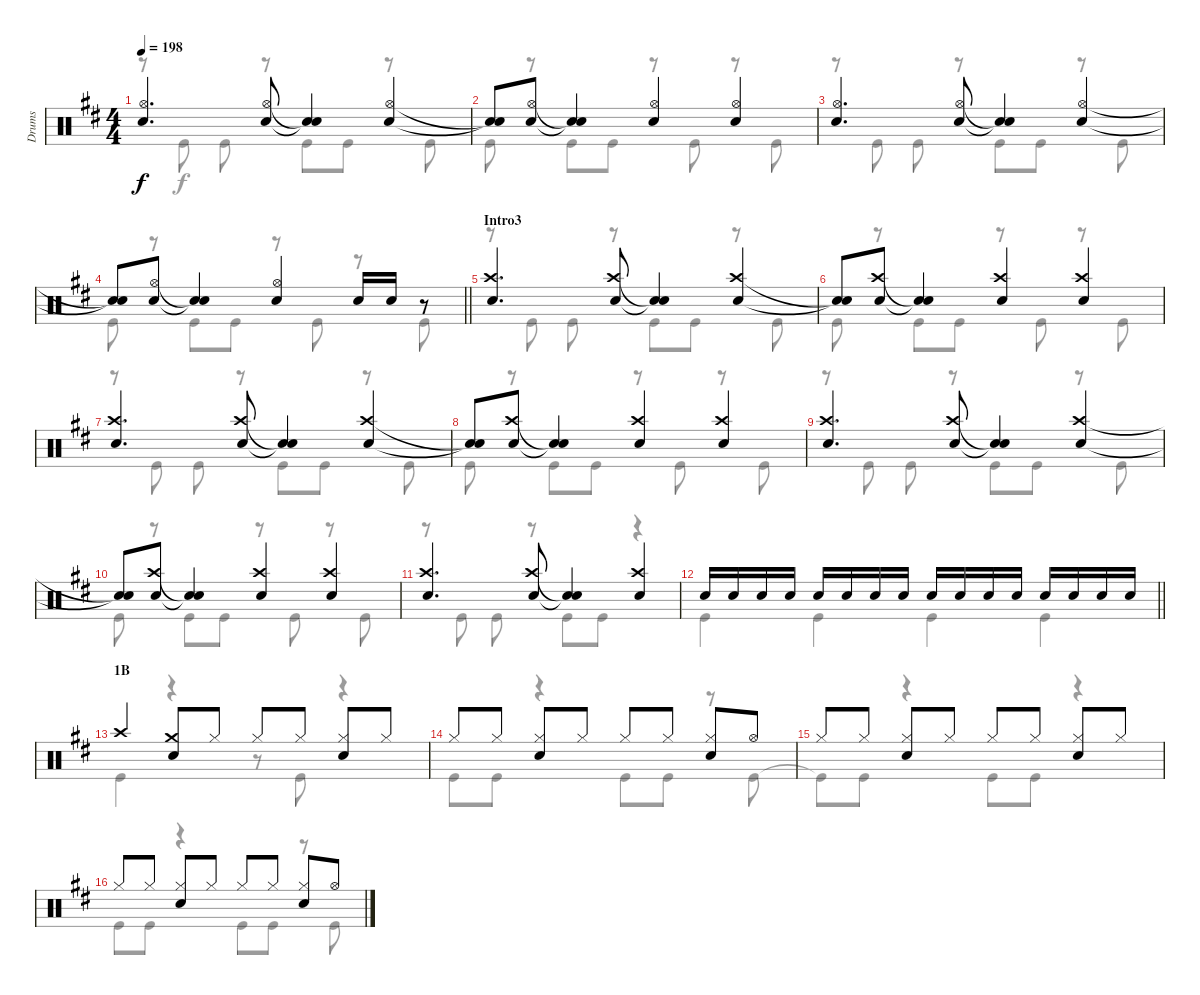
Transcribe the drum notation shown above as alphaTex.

\track ("Drums" "Drums") {instrument percussion}
\staff {score}
\articulation defaults
\voice
\ts (4 4)
\tempo 198
\clef neutral
\ks d
("Hi-Hat (open)" "Snare (hit) 2").4{d dy f} ("Hi-Hat (open)" "Snare (hit) 2").8 ("Snare (hit)"{t} "Snare (hit)"{t}).4 ("Hi-Hat (open)" "Snare (hit) 2").4 |
("Snare (hit)"{t} "Snare (hit)"{t}).8 ("Hi-Hat (open)" "Snare (hit) 2").8 ("Snare (hit)"{t} "Snare (hit)"{t}).4 ("Hi-Hat (open)" "Snare (hit) 2").4 ("Hi-Hat (open)" "Snare (hit) 2").4 |
("Hi-Hat (open)" "Snare (hit) 2").4{d} ("Hi-Hat (open)" "Snare (hit) 2").8 ("Snare (hit)"{t} "Snare (hit)"{t}).4 ("Hi-Hat (open)" "Snare (hit) 2").4 |
\barLineRight lightlight
("Snare (hit)"{t} "Snare (hit)"{t}).8 ("Hi-Hat (open)" "Snare (hit) 2").8 ("Snare (hit)"{t} "Snare (hit)"{t}).4 ("Hi-Hat (open)" "Snare (hit) 2").4 "Snare (hit) 2".16 "Snare (hit) 2".16 r.8 |
\section ("" "Intro3")
("Crash high (hit)" "Snare (hit) 2").4{d} ("Crash high (hit)" "Snare (hit) 2").8 ("Snare (hit)"{t} "Snare (hit)"{t}).4 ("Crash high (hit)" "Snare (hit) 2").4 |
("Snare (hit)"{t} "Snare (hit)"{t}).8 ("Crash high (hit)" "Snare (hit) 2").8 ("Snare (hit)"{t} "Snare (hit)"{t}).4 ("Crash high (hit)" "Snare (hit) 2").4 ("Crash high (hit)" "Snare (hit) 2").4 |
("Crash high (hit)" "Snare (hit) 2").4{d} ("Crash high (hit)" "Snare (hit) 2").8 ("Snare (hit)"{t} "Snare (hit)"{t}).4 ("Crash high (hit)" "Snare (hit) 2").4 |
("Snare (hit)"{t} "Snare (hit)"{t}).8 ("Crash high (hit)" "Snare (hit) 2").8 ("Snare (hit)"{t} "Snare (hit)"{t}).4 ("Crash high (hit)" "Snare (hit) 2").4 ("Crash high (hit)" "Snare (hit) 2").4 |
("Crash high (hit)" "Snare (hit) 2").4{d} ("Crash high (hit)" "Snare (hit) 2").8 ("Snare (hit)"{t} "Snare (hit)"{t}).4 ("Crash high (hit)" "Snare (hit) 2").4 |
("Snare (hit)"{t} "Snare (hit)"{t}).8 ("Crash high (hit)" "Snare (hit) 2").8 ("Snare (hit)"{t} "Snare (hit)"{t}).4 ("Crash high (hit)" "Snare (hit) 2").4 ("Crash high (hit)" "Snare (hit) 2").4 |
("Crash high (hit)" "Snare (hit) 2").4{d} ("Crash high (hit)" "Snare (hit) 2").8 ("Snare (hit)"{t} "Snare (hit)"{t}).4 ("Crash high (hit)" "Snare (hit) 2").4 |
\barLineRight lightlight "Snare (hit) 2".16 "Snare (hit) 2".16 "Snare (hit) 2".16 "Snare (hit) 2".16 "Snare (hit) 2".16 "Snare (hit) 2".16 "Snare (hit) 2".16 "Snare (hit) 2".16 "Snare (hit) 2".16 "Snare (hit) 2".16 "Snare (hit) 2".16 "Snare (hit) 2".16 "Snare (hit) 2".16 "Snare (hit) 2".16 "Snare (hit) 2".16 "Snare (hit) 2".16
|
\section ("" "1B")
"Crash high (hit)".4 ("Crash medium (hit)" "Snare (hit) 2").8 "Hi-Hat (closed)".8 "Hi-Hat (closed)".8 "Hi-Hat (closed)".8 ("Hi-Hat (closed)" "Snare (hit) 2").8 "Hi-Hat (closed)".8 |
"Hi-Hat (closed)".8 "Hi-Hat (closed)".8 ("Hi-Hat (closed)" "Snare (hit) 2").8 "Hi-Hat (closed)".8 "Hi-Hat (closed)".8 "Hi-Hat (closed)".8 ("Hi-Hat (closed)" "Snare (hit) 2").8 "Hi-Hat (open)".8 |
"Hi-Hat (closed)".8 "Hi-Hat (closed)".8 ("Hi-Hat (closed)" "Snare (hit) 2").8 "Hi-Hat (closed)".8 "Hi-Hat (closed)".8 "Hi-Hat (closed)".8 ("Hi-Hat (closed)" "Snare (hit) 2").8 "Hi-Hat (closed)".8 |
"Hi-Hat (closed)".8 "Hi-Hat (closed)".8 ("Hi-Hat (closed)" "Snare (hit) 2").8 "Hi-Hat (closed)".8 "Hi-Hat (closed)".8 "Hi-Hat (closed)".8 ("Hi-Hat (closed)" "Snare (hit) 2").8 "Hi-Hat (open)".8
\voice
\clef neutral
\ottava regular
\simile none
\ks d
r.8{dy f} "Kick (hit)".8 "Kick (hit)".8 r.8 "Kick (hit)".8 "Kick (hit)".8 r.8 "Kick (hit)".8 |
"Kick (hit)".8 r.8 "Kick (hit)".8 "Kick (hit)".8 r.8 "Kick (hit)".8 r.8 "Kick (hit)".8 |
r.8 "Kick (hit)".8 "Kick (hit)".8 r.8 "Kick (hit)".8 "Kick (hit)".8 r.8 "Kick (hit)".8 |
\barLineRight lightlight "Kick (hit)".8
r.8 "Kick (hit)".8 "Kick (hit)".8 r.8 "Kick (hit)".8 r.8 "Kick (hit)".8 |
r.8 "Kick (hit)".8 "Kick (hit)".8 r.8 "Kick (hit)".8 "Kick (hit)".8 r.8 "Kick (hit)".8 |
"Kick (hit)".8 r.8 "Kick (hit)".8 "Kick (hit)".8 r.8 "Kick (hit)".8 r.8 "Kick (hit)".8 |
r.8 "Kick (hit)".8 "Kick (hit)".8 r.8 "Kick (hit)".8 "Kick (hit)".8 r.8 "Kick (hit)".8 |
"Kick (hit)".8 r.8 "Kick (hit)".8 "Kick (hit)".8 r.8 "Kick (hit)".8 r.8 "Kick (hit)".8 |
r.8 "Kick (hit)".8 "Kick (hit)".8 r.8 "Kick (hit)".8 "Kick (hit)".8 r.8 "Kick (hit)".8 |
"Kick (hit)".8 r.8 "Kick (hit)".8 "Kick (hit)".8 r.8 "Kick (hit)".8 r.8 "Kick (hit)".8 |
r.8 "Kick (hit)".8 "Kick (hit)".8 r.8 "Kick (hit)".8 "Kick (hit)".8 r.4 |
\barLineRight lightlight "Kick (hit)".4 "Kick (hit)".4 "Kick (hit)".4 "Kick (hit)".4
|
"Kick (hit)".4 r.4 r.8 "Kick (hit)".8 r.4 |
"Kick (hit)".8 "Kick (hit)".8 r.4 "Kick (hit)".8 "Kick (hit)".8 r.8 "Kick (hit)".8 |
"Kick (hit)"{t}.8 "Kick (hit)".8 r.4 "Kick (hit)".8 "Kick (hit)".8 r.4 |
"Kick (hit)".8 "Kick (hit)".8 r.4 "Kick (hit)".8 "Kick (hit)".8 r.8 "Kick (hit)".8
